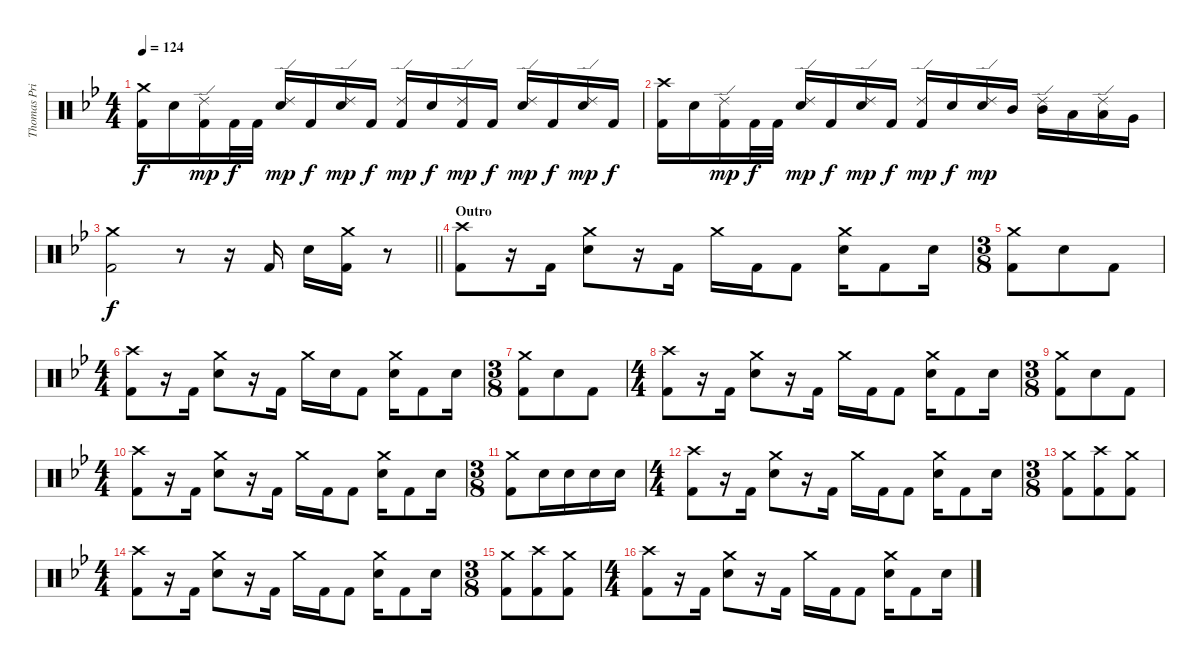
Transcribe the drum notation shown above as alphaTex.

\track ("Thomas Pridgen" "Thomas Pri") {instrument percussion}
\staff {score}
\articulation defaults
\ts (4 4)
\tempo 124
\clef neutral
\ks gminor
("Crash medium (hit)" "Kick (hit) 2").16{dy f} "Electric Snare (hit)".16 ("Ride (edge) 2" "Kick (hit) 2").16{dy mp} "Kick (hit) 2".32{dy f} "Kick (hit) 2".32 ("Ride (edge) 2" "Electric Snare (hit)").16{dy mp} "Kick (hit) 2".16{dy f} ("Ride (edge) 2" "Electric Snare (hit)").16{dy mp} "Kick (hit) 2".16{dy f} ("Ride (edge) 2" "Kick (hit) 2").16{dy mp} "Electric Snare (hit)".16{dy f} ("Ride (edge) 2" "Kick (hit) 2").16{dy mp} "Kick (hit) 2".16{dy f} ("Ride (edge) 2" "Electric Snare (hit)").16{dy mp} "Kick (hit) 2".16{dy f} ("Ride (edge) 2" "Electric Snare (hit)").16{dy mp} "Kick (hit) 2".16{dy f} |
("Crash high (hit)" "Kick (hit) 2").16 "Electric Snare (hit)".16 ("Ride (edge) 2" "Kick (hit) 2").16{dy mp} "Kick (hit) 2".32{dy f} "Kick (hit) 2".32 ("Ride (edge) 2" "Electric Snare (hit)").16{dy mp} "Kick (hit) 2".16{dy f} ("Ride (edge) 2" "Electric Snare (hit)").16{dy mp} "Kick (hit) 2".16{dy f} ("Ride (edge) 2" "Kick (hit) 2").16{dy mp} "Electric Snare (hit)".16{dy f} ("Ride (edge) 2" "Electric Snare (hit)").16{dy mp} "Mid Tom (hit)".16 ("Ride (edge) 2" "Mid Tom (hit)").16 "Low Tom (hit)".16 ("Ride (edge) 2" "Low Tom (hit)").16 "Very Low Tom (hit)".16 |
\barLineRight lightlight
("Crash medium (hit)" "Kick (hit) 2").2{dy f} r.8 r.16 "Kick (hit) 2".16 "Electric Snare (hit)".16 ("Crash medium (hit)" "Kick (hit) 2").16 r.8 |
\section ("" "Outro")
("Crash high (hit)" "Kick (hit) 2").8 r.16 "Kick (hit) 2".16 ("Crash medium (hit)" "Electric Snare (hit)").8 r.16 "Kick (hit) 2".16 "Crash medium (hit)".16 "Kick (hit) 2".16 "Kick (hit) 2".8 ("Crash medium (hit)" "Electric Snare (hit)").16 "Kick (hit) 2".8 "Electric Snare (hit)".16 |
\ts (3 8)
("Crash medium (hit)" "Kick (hit) 2").8 "Electric Snare (hit)".8 "Kick (hit) 2".8 |
\ts (4 4)
("Crash high (hit)" "Kick (hit) 2").8 r.16 "Kick (hit) 2".16 ("Crash medium (hit)" "Electric Snare (hit)").8 r.16 "Kick (hit) 2".16 "Crash medium (hit)".16 "Electric Snare (hit)".16 "Kick (hit) 2".8 ("Crash medium (hit)" "Electric Snare (hit)").16 "Kick (hit) 2".8 "Electric Snare (hit)".16 |
\ts (3 8)
("Crash medium (hit)" "Kick (hit) 2").8 "Electric Snare (hit)".8 "Kick (hit) 2".8 |
\ts (4 4)
("Crash high (hit)" "Kick (hit) 2").8 r.16 "Kick (hit) 2".16 ("Crash medium (hit)" "Electric Snare (hit)").8 r.16 "Kick (hit) 2".16 "Crash medium (hit)".16 "Kick (hit) 2".16 "Kick (hit) 2".8 ("Crash medium (hit)" "Electric Snare (hit)").16 "Kick (hit) 2".8 "Electric Snare (hit)".16 |
\ts (3 8)
("Crash medium (hit)" "Kick (hit) 2").8 "Electric Snare (hit)".8 "Kick (hit) 2".8 |
\ts (4 4)
("Crash high (hit)" "Kick (hit) 2").8 r.16 "Kick (hit) 2".16 ("Crash medium (hit)" "Electric Snare (hit)").8 r.16 "Kick (hit) 2".16 "Crash medium (hit)".16 "Kick (hit) 2".16 "Kick (hit) 2".8 ("Crash medium (hit)" "Electric Snare (hit)").16 "Kick (hit) 2".8 "Electric Snare (hit)".16 |
\ts (3 8)
("Crash medium (hit)" "Kick (hit) 2").8 "Electric Snare (hit)".16 "Electric Snare (hit)".16 "Electric Snare (hit)".16 "Electric Snare (hit)".16 |
\ts (4 4)
("Crash high (hit)" "Kick (hit) 2").8 r.16 "Kick (hit) 2".16 ("Crash medium (hit)" "Electric Snare (hit)").8 r.16 "Kick (hit) 2".16 "Crash medium (hit)".16 "Kick (hit) 2".16 "Kick (hit) 2".8 ("Crash medium (hit)" "Electric Snare (hit)").16 "Kick (hit) 2".8 "Electric Snare (hit)".16 |
\ts (3 8)
("Crash medium (hit)" "Kick (hit) 2").8 ("Crash high (hit)" "Kick (hit) 2").8 ("Crash medium (hit)" "Kick (hit) 2").8 |
\ts (4 4)
("Crash high (hit)" "Kick (hit) 2").8 r.16 "Kick (hit) 2".16 ("Crash medium (hit)" "Electric Snare (hit)").8 r.16 "Kick (hit) 2".16 "Crash medium (hit)".16 "Kick (hit) 2".16 "Kick (hit) 2".8 ("Crash medium (hit)" "Electric Snare (hit)").16 "Kick (hit) 2".8 "Electric Snare (hit)".16 |
\ts (3 8)
("Crash medium (hit)" "Kick (hit) 2").8 ("Crash high (hit)" "Kick (hit) 2").8 ("Crash medium (hit)" "Kick (hit) 2").8 |
\ts (4 4)
("Crash high (hit)" "Kick (hit) 2").8 r.16 "Kick (hit) 2".16 ("Crash medium (hit)" "Electric Snare (hit)").8 r.16 "Kick (hit) 2".16 "Crash medium (hit)".16 "Kick (hit) 2".16 "Kick (hit) 2".8 ("Crash medium (hit)" "Electric Snare (hit)").16 "Kick (hit) 2".8 "Electric Snare (hit)".16
